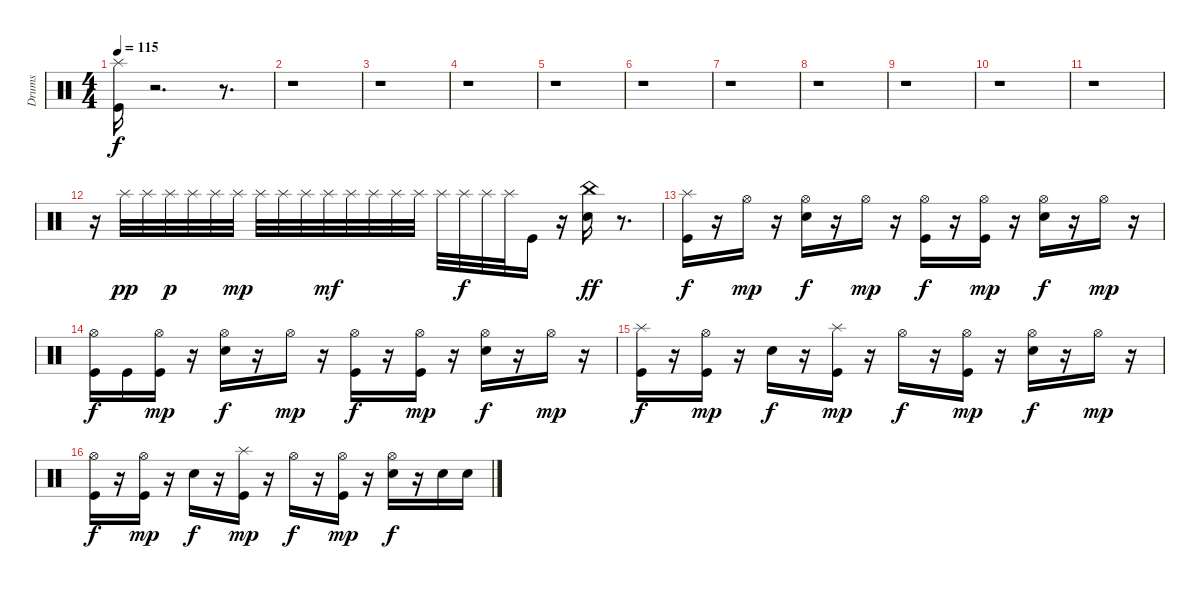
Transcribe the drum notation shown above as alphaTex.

\track ("Drums" "Drums") {instrument percussion}
\staff {score}
\articulation defaults
\ts (4 4)
\tempo 115
\clef neutral
\ks c
("Splash (hit)" "Kick (hit)").16{dy f} r.2{d} r.8{d} |
r.1 |
r.1 |
r.1 |
r.1 |
r.1 |
r.1 |
r.1 |
r.1 |
r.1 |
r.1 |
r.16 "Splash (hit)".32{dy pp} "Splash (hit)".32 "Splash (hit)".32{dy p} "Splash (hit)".32 "Splash (hit)".32 "Splash (hit)".32{dy mp} "Splash (hit)".32 "Splash (hit)".32 "Splash (hit)".32 "Splash (hit)".32{dy mf} "Splash (hit)".32 "Splash (hit)".32 "Splash (hit)".32 "Splash (hit)".32 "Splash (hit)".32 "Splash (hit)".32{dy f} "Splash (hit)".32 "Splash (hit)".32 "Kick (hit)".16 r.16 ("China (hit)" "Electric Snare (hit)").16{dy ff} r.8{d} |
("Splash (hit)" "Kick (hit)").16{dy f} r.16 "Hi-Hat (open)".16{dy mp} r.16 ("Hi-Hat (open)" "Electric Snare (hit)").16{dy f} r.16 "Hi-Hat (open)".16{dy mp} r.16 ("Hi-Hat (open)" "Kick (hit)").16{dy f} r.16 ("Kick (hit)" "Hi-Hat (open)").16{dy mp} r.16 ("Hi-Hat (open)" "Electric Snare (hit)").16{dy f} r.16 "Hi-Hat (open)".16{dy mp} r.16 |
("Hi-Hat (open)" "Kick (hit)").16{dy f} "Kick (hit)".16 ("Kick (hit)" "Hi-Hat (open)").16{dy mp} r.16 ("Hi-Hat (open)" "Electric Snare (hit)").16{dy f} r.16 "Hi-Hat (open)".16{dy mp} r.16 ("Hi-Hat (open)" "Kick (hit)").16{dy f} r.16 ("Kick (hit)" "Hi-Hat (open)").16{dy mp} r.16 ("Hi-Hat (open)" "Electric Snare (hit)").16{dy f} r.16 "Hi-Hat (open)".16{dy mp} r.16 |
("Splash (hit)" "Kick (hit)").16{dy f} r.16 ("Kick (hit)" "Hi-Hat (open)").16{dy mp} r.16 "Electric Snare (hit)".16{dy f} r.16 ("Splash (hit)" "Kick (hit)").16{dy mp} r.16 "Hi-Hat (open)".16{dy f} r.16 ("Kick (hit)" "Hi-Hat (open)").16{dy mp} r.16 ("Hi-Hat (open)" "Electric Snare (hit)").16{dy f} r.16 "Hi-Hat (open)".16{dy mp} r.16 |
("Hi-Hat (open)" "Kick (hit)").16{dy f} r.16 ("Kick (hit)" "Hi-Hat (open)").16{dy mp} r.16 "Electric Snare (hit)".16{dy f} r.16 ("Splash (hit)" "Kick (hit)").16{dy mp} r.16 "Hi-Hat (open)".16{dy f} r.16 ("Kick (hit)" "Hi-Hat (open)").16{dy mp} r.16 ("Hi-Hat (open)" "Electric Snare (hit)").16{dy f} r.16 "Electric Snare (hit)".16 "Electric Snare (hit)".16
